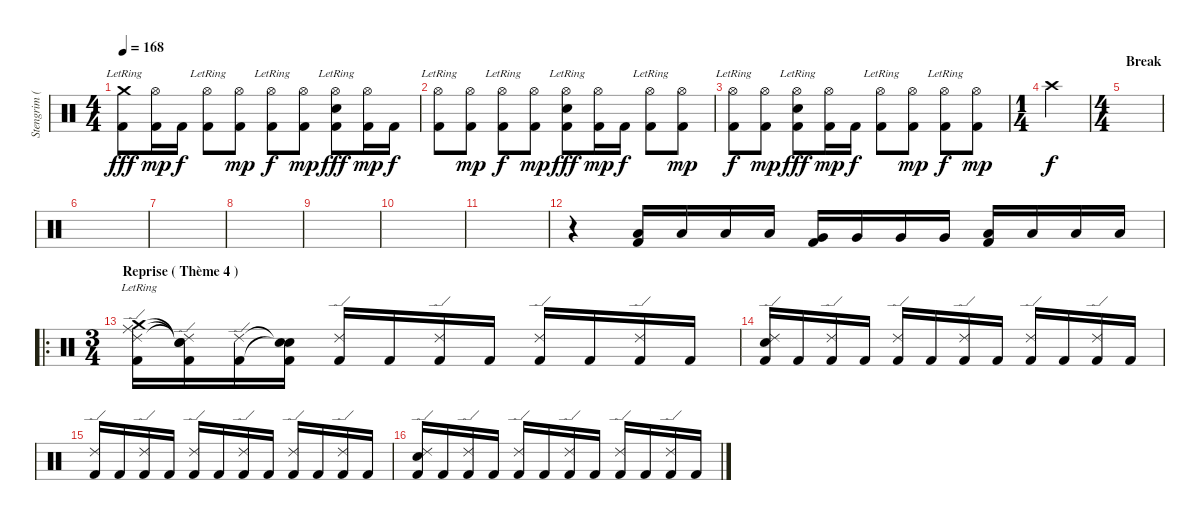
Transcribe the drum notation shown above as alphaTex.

\track ("Stengrim ( Batterie )" "Stengrim (") {instrument percussion}
\staff {score}
\articulation defaults
\ts (4 4)
\tempo 168
\clef neutral
\ks c
("Crash medium (hit)"{lr} "Kick (hit) 2").8{dy fff} ("Hi-Hat (open)" "Kick (hit) 2").16{dy mp} "Kick (hit) 2".16{dy f} ("Hi-Hat (open)"{lr} "Kick (hit) 2").8 ("Hi-Hat (open)" "Kick (hit) 2").8{dy mp} ("Hi-Hat (open)"{lr} "Kick (hit) 2").8{dy f} ("Hi-Hat (open)" "Kick (hit) 2").8{dy mp} ("Hi-Hat (open)"{lr} "Electric Snare (hit)"{lr} "Kick (hit) 2").8{dy fff} ("Hi-Hat (open)" "Kick (hit) 2").16{dy mp} "Kick (hit) 2".16{dy f} |
("Hi-Hat (open)"{lr} "Kick (hit) 2").8 ("Hi-Hat (open)" "Kick (hit) 2").8{dy mp} ("Hi-Hat (open)"{lr} "Kick (hit) 2").8{dy f} ("Hi-Hat (open)" "Kick (hit) 2").8{dy mp} ("Hi-Hat (open)"{lr} "Electric Snare (hit)"{lr} "Kick (hit) 2").8{dy fff} ("Hi-Hat (open)" "Kick (hit) 2").16{dy mp} "Kick (hit) 2".16{dy f} ("Hi-Hat (open)"{lr} "Kick (hit) 2").8 ("Hi-Hat (open)" "Kick (hit) 2").8{dy mp} |
("Hi-Hat (open)"{lr} "Kick (hit) 2").8{dy f} ("Hi-Hat (open)" "Kick (hit) 2").8{dy mp} ("Hi-Hat (open)"{lr} "Electric Snare (hit)"{lr} "Kick (hit) 2").8{dy fff} ("Hi-Hat (open)" "Kick (hit) 2").16{dy mp} "Kick (hit) 2".16{dy f} ("Hi-Hat (open)"{lr} "Kick (hit) 2").8 ("Hi-Hat (open)" "Kick (hit) 2").8{dy mp} ("Hi-Hat (open)"{lr} "Kick (hit) 2").8{dy f} ("Hi-Hat (open)" "Kick (hit) 2").8{dy mp} |
\ts (1 4)
"Crash high (hit)".4{dy f} |
\ts (4 4)
\section ("" "Break")
|
|
|
|
|
|
|
r.4 ("Low Tom (hit)" "Kick (hit) 2").16 "Low Tom (hit)".16 "Low Tom (hit)".16 "Low Tom (hit)".16 ("Very Low Tom (hit)" "Kick (hit) 2").16 "Very Low Tom (hit)".16 "Very Low Tom (hit)".16 "Very Low Tom (hit)".16 ("Low Floor Tom (hit)" "Kick (hit) 2").16 "Low Floor Tom (hit)".16 "Low Floor Tom (hit)".16 "Low Floor Tom (hit)".16 |
\ro
\ts (3 4)
\section ("" "Reprise ( Thème 4 )")
("Ride (edge) 2" "Ride (middle)"{lr} "Crash medium (hit)"{lr} "Kick (hit) 2").16 ("Ride (edge) 2"{t} "Snare (hit)"{t} "Snare (hit)"{t} "Kick (hit) 2").16 ("Ride (edge) 2" "Kick (hit) 2").16 ("Snare (hit)"{t} "Snare (hit)"{t} "Kick (hit) 2").16 ("Ride (edge) 2" "Kick (hit) 2").16 "Kick (hit) 2".16 ("Ride (edge) 2" "Kick (hit) 2").16 "Kick (hit) 2".16 ("Ride (edge) 2" "Kick (hit) 2").16 "Kick (hit) 2".16 ("Ride (edge) 2" "Kick (hit) 2").16 "Kick (hit) 2".16 |
("Ride (edge) 2" "Electric Snare (hit)" "Kick (hit) 2").16 "Kick (hit) 2".16 ("Ride (edge) 2" "Kick (hit) 2").16 "Kick (hit) 2".16 ("Ride (edge) 2" "Kick (hit) 2").16 "Kick (hit) 2".16 ("Ride (edge) 2" "Kick (hit) 2").16 "Kick (hit) 2".16 ("Ride (edge) 2" "Kick (hit) 2").16 "Kick (hit) 2".16 ("Ride (edge) 2" "Kick (hit) 2").16 "Kick (hit) 2".16 |
("Ride (edge) 2" "Kick (hit) 2").16 "Kick (hit) 2".16 ("Ride (edge) 2" "Kick (hit) 2").16 "Kick (hit) 2".16 ("Ride (edge) 2" "Kick (hit) 2").16 "Kick (hit) 2".16 ("Ride (edge) 2" "Kick (hit) 2").16 "Kick (hit) 2".16 ("Ride (edge) 2" "Kick (hit) 2").16 "Kick (hit) 2".16 ("Ride (edge) 2" "Kick (hit) 2").16 "Kick (hit) 2".16 |
("Ride (edge) 2" "Electric Snare (hit)" "Kick (hit) 2").16 "Kick (hit) 2".16 ("Ride (edge) 2" "Kick (hit) 2").16 "Kick (hit) 2".16 ("Ride (edge) 2" "Kick (hit) 2").16 "Kick (hit) 2".16 ("Ride (edge) 2" "Kick (hit) 2").16 "Kick (hit) 2".16 ("Ride (edge) 2" "Kick (hit) 2").16 "Kick (hit) 2".16 ("Ride (edge) 2" "Kick (hit) 2").16 "Kick (hit) 2".16
